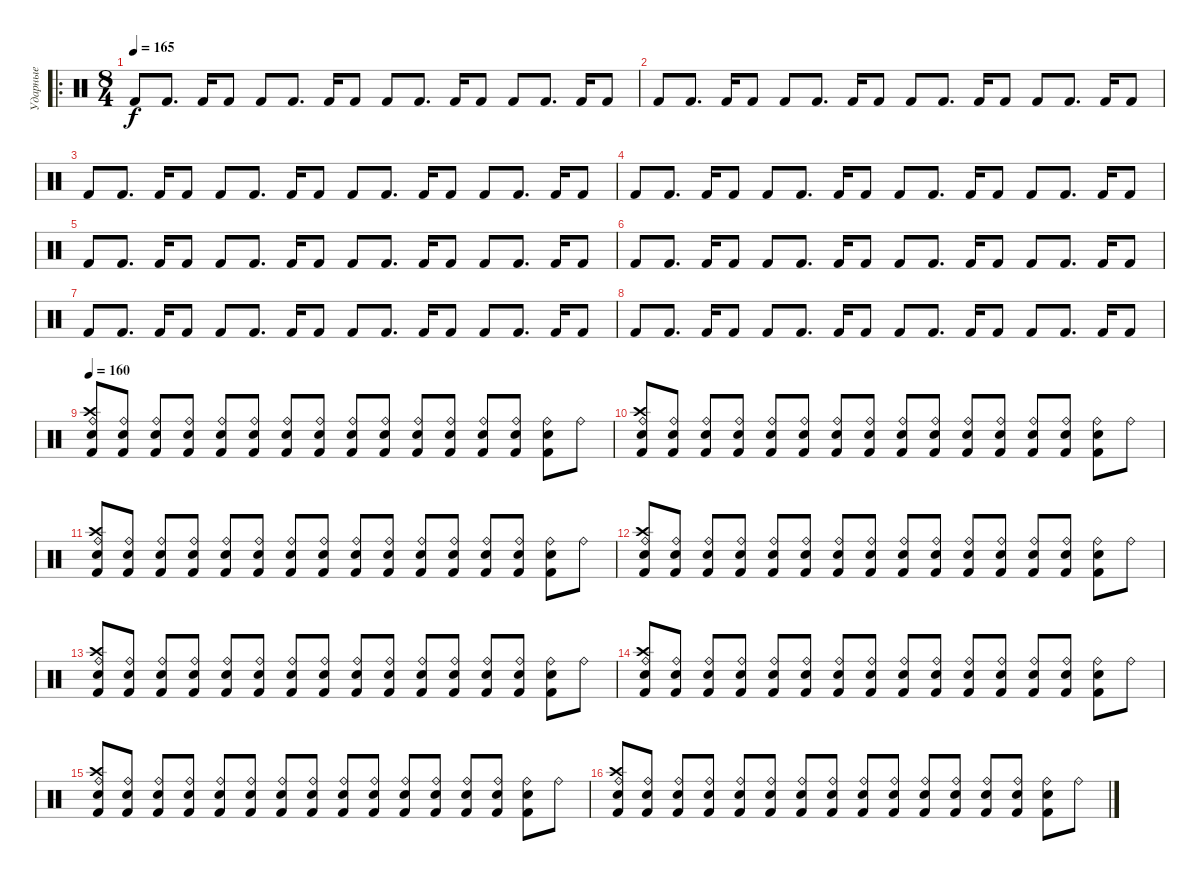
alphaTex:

\track ("Ударные" "Ударные") {instrument percussion}
\staff {score}
\articulation defaults
\ro
\ts (8 4)
\tempo 165
\clef neutral
\ks c "Kick (hit) 2".8{dy f} "Kick (hit) 2".8{d} "Kick (hit) 2".16 "Kick (hit) 2".8 "Kick (hit) 2".8 "Kick (hit) 2".8{d} "Kick (hit) 2".16 "Kick (hit) 2".8 "Kick (hit) 2".8 "Kick (hit) 2".8{d} "Kick (hit) 2".16 "Kick (hit) 2".8 "Kick (hit) 2".8 "Kick (hit) 2".8{d} "Kick (hit) 2".16 "Kick (hit) 2".8
|
"Kick (hit) 2".8 "Kick (hit) 2".8{d} "Kick (hit) 2".16 "Kick (hit) 2".8 "Kick (hit) 2".8 "Kick (hit) 2".8{d} "Kick (hit) 2".16 "Kick (hit) 2".8 "Kick (hit) 2".8 "Kick (hit) 2".8{d} "Kick (hit) 2".16 "Kick (hit) 2".8 "Kick (hit) 2".8 "Kick (hit) 2".8{d} "Kick (hit) 2".16 "Kick (hit) 2".8 |
"Kick (hit) 2".8 "Kick (hit) 2".8{d} "Kick (hit) 2".16 "Kick (hit) 2".8 "Kick (hit) 2".8 "Kick (hit) 2".8{d} "Kick (hit) 2".16 "Kick (hit) 2".8 "Kick (hit) 2".8 "Kick (hit) 2".8{d} "Kick (hit) 2".16 "Kick (hit) 2".8 "Kick (hit) 2".8 "Kick (hit) 2".8{d} "Kick (hit) 2".16 "Kick (hit) 2".8 |
"Kick (hit) 2".8 "Kick (hit) 2".8{d} "Kick (hit) 2".16 "Kick (hit) 2".8 "Kick (hit) 2".8 "Kick (hit) 2".8{d} "Kick (hit) 2".16 "Kick (hit) 2".8 "Kick (hit) 2".8 "Kick (hit) 2".8{d} "Kick (hit) 2".16 "Kick (hit) 2".8 "Kick (hit) 2".8 "Kick (hit) 2".8{d} "Kick (hit) 2".16 "Kick (hit) 2".8 |
"Kick (hit) 2".8 "Kick (hit) 2".8{d} "Kick (hit) 2".16 "Kick (hit) 2".8 "Kick (hit) 2".8 "Kick (hit) 2".8{d} "Kick (hit) 2".16 "Kick (hit) 2".8 "Kick (hit) 2".8 "Kick (hit) 2".8{d} "Kick (hit) 2".16 "Kick (hit) 2".8 "Kick (hit) 2".8 "Kick (hit) 2".8{d} "Kick (hit) 2".16 "Kick (hit) 2".8 |
"Kick (hit) 2".8 "Kick (hit) 2".8{d} "Kick (hit) 2".16 "Kick (hit) 2".8 "Kick (hit) 2".8 "Kick (hit) 2".8{d} "Kick (hit) 2".16 "Kick (hit) 2".8 "Kick (hit) 2".8 "Kick (hit) 2".8{d} "Kick (hit) 2".16 "Kick (hit) 2".8 "Kick (hit) 2".8 "Kick (hit) 2".8{d} "Kick (hit) 2".16 "Kick (hit) 2".8 |
"Kick (hit) 2".8 "Kick (hit) 2".8{d} "Kick (hit) 2".16 "Kick (hit) 2".8 "Kick (hit) 2".8 "Kick (hit) 2".8{d} "Kick (hit) 2".16 "Kick (hit) 2".8 "Kick (hit) 2".8 "Kick (hit) 2".8{d} "Kick (hit) 2".16 "Kick (hit) 2".8 "Kick (hit) 2".8 "Kick (hit) 2".8{d} "Kick (hit) 2".16 "Kick (hit) 2".8 |
"Kick (hit) 2".8 "Kick (hit) 2".8{d} "Kick (hit) 2".16 "Kick (hit) 2".8 "Kick (hit) 2".8 "Kick (hit) 2".8{d} "Kick (hit) 2".16 "Kick (hit) 2".8 "Kick (hit) 2".8 "Kick (hit) 2".8{d} "Kick (hit) 2".16 "Kick (hit) 2".8 "Kick (hit) 2".8 "Kick (hit) 2".8{d} "Kick (hit) 2".16 "Kick (hit) 2".8 |
\tempo 160
("Ride (bell)" "Crash high (hit)" "Kick (hit) 2" "Snare (hit) 2").8 ("Ride (bell)" "Kick (hit) 2" "Snare (hit) 2").8 ("Ride (bell)" "Kick (hit) 2" "Snare (hit) 2").8 ("Ride (bell)" "Kick (hit) 2" "Snare (hit) 2").8 ("Ride (bell)" "Kick (hit) 2" "Snare (hit) 2").8 ("Ride (bell)" "Kick (hit) 2" "Snare (hit) 2").8 ("Ride (bell)" "Kick (hit) 2" "Snare (hit) 2").8 ("Ride (bell)" "Kick (hit) 2" "Snare (hit) 2").8 ("Ride (bell)" "Snare (hit) 2" "Kick (hit) 2").8 ("Ride (bell)" "Snare (hit) 2" "Kick (hit) 2").8 ("Ride (bell)" "Snare (hit) 2" "Kick (hit) 2").8 ("Ride (bell)" "Snare (hit) 2" "Kick (hit) 2").8 ("Ride (bell)" "Snare (hit) 2" "Kick (hit) 2").8 ("Ride (bell)" "Snare (hit) 2" "Kick (hit) 2").8 ("Ride (bell)" "Snare (hit) 2" "Kick (hit) 2").8 "Ride (bell)".8 |
("Ride (bell)" "Crash high (hit)" "Kick (hit) 2" "Snare (hit) 2").8 ("Ride (bell)" "Kick (hit) 2" "Snare (hit) 2").8 ("Ride (bell)" "Kick (hit) 2" "Snare (hit) 2").8 ("Ride (bell)" "Kick (hit) 2" "Snare (hit) 2").8 ("Ride (bell)" "Kick (hit) 2" "Snare (hit) 2").8 ("Ride (bell)" "Kick (hit) 2" "Snare (hit) 2").8 ("Ride (bell)" "Kick (hit) 2" "Snare (hit) 2").8 ("Ride (bell)" "Kick (hit) 2" "Snare (hit) 2").8 ("Ride (bell)" "Snare (hit) 2" "Kick (hit) 2").8 ("Ride (bell)" "Snare (hit) 2" "Kick (hit) 2").8 ("Ride (bell)" "Snare (hit) 2" "Kick (hit) 2").8 ("Ride (bell)" "Snare (hit) 2" "Kick (hit) 2").8 ("Ride (bell)" "Snare (hit) 2" "Kick (hit) 2").8 ("Ride (bell)" "Snare (hit) 2" "Kick (hit) 2").8 ("Ride (bell)" "Snare (hit) 2" "Kick (hit) 2").8 "Ride (bell)".8 |
("Ride (bell)" "Crash high (hit)" "Kick (hit) 2" "Snare (hit) 2").8 ("Ride (bell)" "Kick (hit) 2" "Snare (hit) 2").8 ("Ride (bell)" "Kick (hit) 2" "Snare (hit) 2").8 ("Ride (bell)" "Kick (hit) 2" "Snare (hit) 2").8 ("Ride (bell)" "Kick (hit) 2" "Snare (hit) 2").8 ("Ride (bell)" "Kick (hit) 2" "Snare (hit) 2").8 ("Ride (bell)" "Kick (hit) 2" "Snare (hit) 2").8 ("Ride (bell)" "Kick (hit) 2" "Snare (hit) 2").8 ("Ride (bell)" "Snare (hit) 2" "Kick (hit) 2").8 ("Ride (bell)" "Snare (hit) 2" "Kick (hit) 2").8 ("Ride (bell)" "Snare (hit) 2" "Kick (hit) 2").8 ("Ride (bell)" "Snare (hit) 2" "Kick (hit) 2").8 ("Ride (bell)" "Snare (hit) 2" "Kick (hit) 2").8 ("Ride (bell)" "Snare (hit) 2" "Kick (hit) 2").8 ("Ride (bell)" "Snare (hit) 2" "Kick (hit) 2").8 "Ride (bell)".8 |
("Ride (bell)" "Crash high (hit)" "Kick (hit) 2" "Snare (hit) 2").8 ("Ride (bell)" "Kick (hit) 2" "Snare (hit) 2").8 ("Ride (bell)" "Kick (hit) 2" "Snare (hit) 2").8 ("Ride (bell)" "Kick (hit) 2" "Snare (hit) 2").8 ("Ride (bell)" "Kick (hit) 2" "Snare (hit) 2").8 ("Ride (bell)" "Kick (hit) 2" "Snare (hit) 2").8 ("Ride (bell)" "Kick (hit) 2" "Snare (hit) 2").8 ("Ride (bell)" "Kick (hit) 2" "Snare (hit) 2").8 ("Ride (bell)" "Snare (hit) 2" "Kick (hit) 2").8 ("Ride (bell)" "Snare (hit) 2" "Kick (hit) 2").8 ("Ride (bell)" "Snare (hit) 2" "Kick (hit) 2").8 ("Ride (bell)" "Snare (hit) 2" "Kick (hit) 2").8 ("Ride (bell)" "Snare (hit) 2" "Kick (hit) 2").8 ("Ride (bell)" "Snare (hit) 2" "Kick (hit) 2").8 ("Ride (bell)" "Snare (hit) 2" "Kick (hit) 2").8 "Ride (bell)".8 |
("Ride (bell)" "Crash high (hit)" "Kick (hit) 2" "Snare (hit) 2").8 ("Ride (bell)" "Kick (hit) 2" "Snare (hit) 2").8 ("Ride (bell)" "Kick (hit) 2" "Snare (hit) 2").8 ("Ride (bell)" "Kick (hit) 2" "Snare (hit) 2").8 ("Ride (bell)" "Kick (hit) 2" "Snare (hit) 2").8 ("Ride (bell)" "Kick (hit) 2" "Snare (hit) 2").8 ("Ride (bell)" "Kick (hit) 2" "Snare (hit) 2").8 ("Ride (bell)" "Kick (hit) 2" "Snare (hit) 2").8 ("Ride (bell)" "Snare (hit) 2" "Kick (hit) 2").8 ("Ride (bell)" "Snare (hit) 2" "Kick (hit) 2").8 ("Ride (bell)" "Snare (hit) 2" "Kick (hit) 2").8 ("Ride (bell)" "Snare (hit) 2" "Kick (hit) 2").8 ("Ride (bell)" "Snare (hit) 2" "Kick (hit) 2").8 ("Ride (bell)" "Snare (hit) 2" "Kick (hit) 2").8 ("Ride (bell)" "Snare (hit) 2" "Kick (hit) 2").8 "Ride (bell)".8 |
("Ride (bell)" "Crash high (hit)" "Kick (hit) 2" "Snare (hit) 2").8 ("Ride (bell)" "Kick (hit) 2" "Snare (hit) 2").8 ("Ride (bell)" "Kick (hit) 2" "Snare (hit) 2").8 ("Ride (bell)" "Kick (hit) 2" "Snare (hit) 2").8 ("Ride (bell)" "Kick (hit) 2" "Snare (hit) 2").8 ("Ride (bell)" "Kick (hit) 2" "Snare (hit) 2").8 ("Ride (bell)" "Kick (hit) 2" "Snare (hit) 2").8 ("Ride (bell)" "Kick (hit) 2" "Snare (hit) 2").8 ("Ride (bell)" "Snare (hit) 2" "Kick (hit) 2").8 ("Ride (bell)" "Snare (hit) 2" "Kick (hit) 2").8 ("Ride (bell)" "Snare (hit) 2" "Kick (hit) 2").8 ("Ride (bell)" "Snare (hit) 2" "Kick (hit) 2").8 ("Ride (bell)" "Snare (hit) 2" "Kick (hit) 2").8 ("Ride (bell)" "Snare (hit) 2" "Kick (hit) 2").8 ("Ride (bell)" "Snare (hit) 2" "Kick (hit) 2").8 "Ride (bell)".8 |
("Ride (bell)" "Crash high (hit)" "Kick (hit) 2" "Snare (hit) 2").8 ("Ride (bell)" "Kick (hit) 2" "Snare (hit) 2").8 ("Ride (bell)" "Kick (hit) 2" "Snare (hit) 2").8 ("Ride (bell)" "Kick (hit) 2" "Snare (hit) 2").8 ("Ride (bell)" "Kick (hit) 2" "Snare (hit) 2").8 ("Ride (bell)" "Kick (hit) 2" "Snare (hit) 2").8 ("Ride (bell)" "Kick (hit) 2" "Snare (hit) 2").8 ("Ride (bell)" "Kick (hit) 2" "Snare (hit) 2").8 ("Ride (bell)" "Snare (hit) 2" "Kick (hit) 2").8 ("Ride (bell)" "Snare (hit) 2" "Kick (hit) 2").8 ("Ride (bell)" "Snare (hit) 2" "Kick (hit) 2").8 ("Ride (bell)" "Snare (hit) 2" "Kick (hit) 2").8 ("Ride (bell)" "Snare (hit) 2" "Kick (hit) 2").8 ("Ride (bell)" "Snare (hit) 2" "Kick (hit) 2").8 ("Ride (bell)" "Snare (hit) 2" "Kick (hit) 2").8 "Ride (bell)".8 |
("Ride (bell)" "Crash high (hit)" "Kick (hit) 2" "Snare (hit) 2").8 ("Ride (bell)" "Kick (hit) 2" "Snare (hit) 2").8 ("Ride (bell)" "Kick (hit) 2" "Snare (hit) 2").8 ("Ride (bell)" "Kick (hit) 2" "Snare (hit) 2").8 ("Ride (bell)" "Kick (hit) 2" "Snare (hit) 2").8 ("Ride (bell)" "Kick (hit) 2" "Snare (hit) 2").8 ("Ride (bell)" "Kick (hit) 2" "Snare (hit) 2").8 ("Ride (bell)" "Kick (hit) 2" "Snare (hit) 2").8 ("Ride (bell)" "Snare (hit) 2" "Kick (hit) 2").8 ("Ride (bell)" "Snare (hit) 2" "Kick (hit) 2").8 ("Ride (bell)" "Snare (hit) 2" "Kick (hit) 2").8 ("Ride (bell)" "Snare (hit) 2" "Kick (hit) 2").8 ("Ride (bell)" "Snare (hit) 2" "Kick (hit) 2").8 ("Ride (bell)" "Snare (hit) 2" "Kick (hit) 2").8 ("Ride (bell)" "Snare (hit) 2" "Kick (hit) 2").8 "Ride (bell)".8
